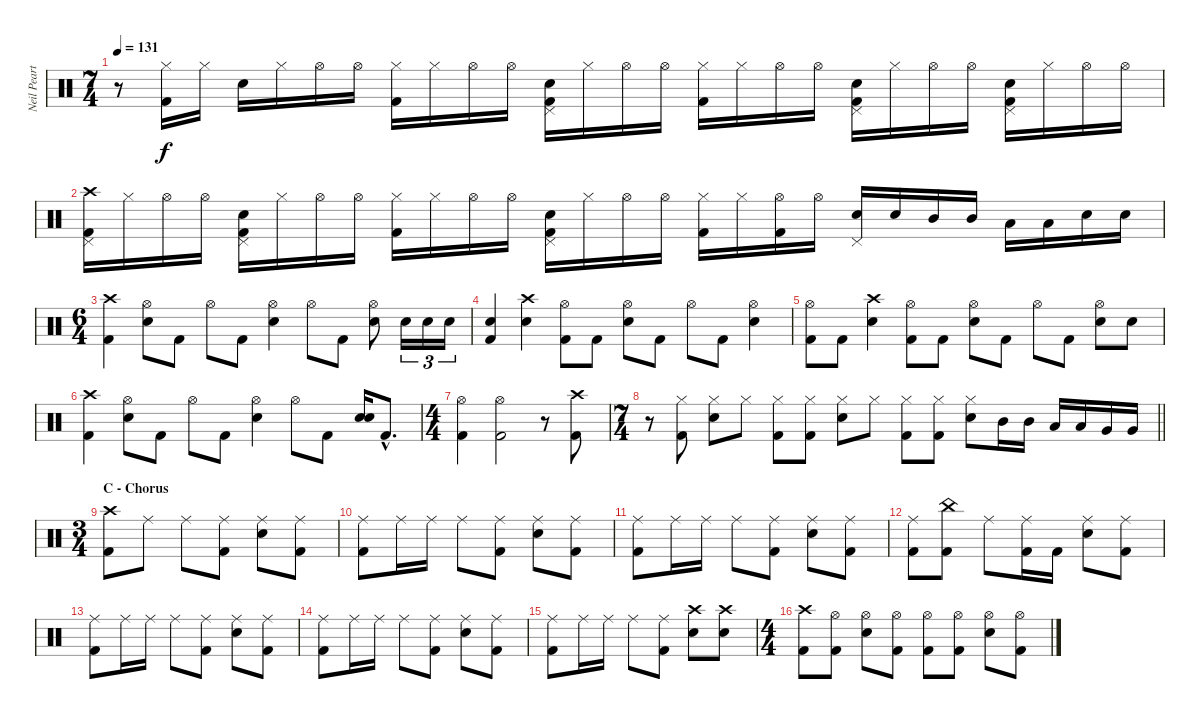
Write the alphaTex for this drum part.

\track ("Neil Peart" "Neil Peart") {instrument percussion}
\staff {score}
\articulation defaults
\ts (7 4)
\tempo 131
\clef neutral
\ks c
r.8{dy f} ("Hi-Hat (closed)" "Kick (hit) 2").16 "Hi-Hat (closed)".16 "Electric Snare (hit)".16 "Hi-Hat (closed)".16 "Hi-Hat (open)".16 "Hi-Hat (open)".16 ("Hi-Hat (closed)" "Kick (hit) 2").16 "Hi-Hat (closed)".16 "Hi-Hat (open)".16 "Hi-Hat (open)".16 ("Pedal Hi-Hat (hit)" "Electric Snare (hit)" "Kick (hit) 2").16 "Hi-Hat (closed)".16 "Hi-Hat (open)".16 "Hi-Hat (open)".16 ("Hi-Hat (closed)" "Kick (hit) 2").16 "Hi-Hat (closed)".16 "Hi-Hat (open)".16 "Hi-Hat (open)".16 ("Pedal Hi-Hat (hit)" "Electric Snare (hit)" "Kick (hit) 2").16 "Hi-Hat (closed)".16 "Hi-Hat (open)".16 "Hi-Hat (open)".16 ("Pedal Hi-Hat (hit)" "Electric Snare (hit)" "Kick (hit) 2").16 "Hi-Hat (closed)".16 "Hi-Hat (open)".16 "Hi-Hat (open)".16 |
("Crash high (hit)" "Pedal Hi-Hat (hit)" "Kick (hit) 2").16 "Hi-Hat (closed)".16 "Hi-Hat (open)".16 "Hi-Hat (open)".16 ("Pedal Hi-Hat (hit)" "Electric Snare (hit)" "Kick (hit) 2").16 "Hi-Hat (closed)".16 "Hi-Hat (open)".16 "Hi-Hat (open)".16 ("Hi-Hat (closed)" "Kick (hit) 2").16 "Hi-Hat (closed)".16 "Hi-Hat (open)".16 "Hi-Hat (open)".16 ("Pedal Hi-Hat (hit)" "Electric Snare (hit)" "Kick (hit) 2").16 "Hi-Hat (closed)".16 "Hi-Hat (open)".16 "Hi-Hat (open)".16 ("Hi-Hat (closed)" "Kick (hit) 2").16 "Hi-Hat (closed)".16 ("Hi-Hat (open)" "Kick (hit) 2").16 "Hi-Hat (open)".16 ("Pedal Hi-Hat (hit)" "Electric Snare (hit)").16 "Electric Snare (hit)".16 "Mid Tom (hit)".16 "Mid Tom (hit)".16 "Low Tom (hit)".16 "Low Tom (hit)".16 "Electric Snare (hit)".16 "Electric Snare (hit)".16 |
\ts (6 4)
("Crash high (hit)" "Kick (hit) 2").4 ("Hi-Hat (open)" "Electric Snare (hit)").8 "Kick (hit) 2".8 "Hi-Hat (open)".8 "Kick (hit) 2".8 ("Hi-Hat (open)" "Electric Snare (hit)").4 "Hi-Hat (open)".8 "Kick (hit) 2".8 ("Hi-Hat (open)" "Electric Snare (hit)").8 "Electric Snare (hit)".16{tu (3 2)} "Electric Snare (hit)".16{tu (3 2)} "Electric Snare (hit)".16{tu (3 2)} |
("Electric Snare (hit)" "Kick (hit) 2").4 ("Crash high (hit)" "Electric Snare (hit)").4 ("Hi-Hat (open)" "Kick (hit) 2").8 "Kick (hit) 2".8 ("Hi-Hat (open)" "Electric Snare (hit)").8 "Kick (hit) 2".8 "Hi-Hat (open)".8 "Kick (hit) 2".8 ("Hi-Hat (open)" "Electric Snare (hit)").4 |
("Hi-Hat (open)" "Kick (hit) 2").8 "Kick (hit) 2".8 ("Crash high (hit)" "Electric Snare (hit)").4 ("Hi-Hat (open)" "Kick (hit) 2").8 "Kick (hit) 2".8 ("Hi-Hat (open)" "Electric Snare (hit)").8 "Kick (hit) 2".8 "Hi-Hat (open)".8 "Kick (hit) 2".8 ("Hi-Hat (open)" "Electric Snare (hit)").8 "Electric Snare (hit)".8 |
("Crash high (hit)" "Kick (hit) 2").4 ("Hi-Hat (open)" "Electric Snare (hit)").8 "Kick (hit) 2".8 "Hi-Hat (open)".8 "Kick (hit) 2".8 ("Hi-Hat (open)" "Electric Snare (hit)").4 "Hi-Hat (open)".8 "Kick (hit) 2".8 ("Electric Snare (hit)" "Electric Snare (hit)").16{bd 240} "Kick (hit) 2"{hac}.8{d} |
\ts (4 4)
("Hi-Hat (open)" "Kick (hit) 2").4 ("Hi-Hat (open)" "Kick (hit) 2").2 r.8 ("Crash high (hit)" "Kick (hit) 2").8 |
\ts (7 4)
\barLineRight lightlight
r.8 ("Hi-Hat (closed)" "Kick (hit) 2").8 ("Hi-Hat (closed)" "Electric Snare (hit)").8 "Hi-Hat (closed)".8 ("Hi-Hat (closed)" "Kick (hit) 2").8 ("Hi-Hat (closed)" "Kick (hit) 2").8 ("Hi-Hat (closed)" "Electric Snare (hit)").8 "Hi-Hat (closed)".8 ("Hi-Hat (closed)" "Kick (hit) 2").8 ("Hi-Hat (closed)" "Kick (hit) 2").8 ("Hi-Hat (closed)" "Electric Snare (hit)").8 "Mid Tom (hit)".16 "Mid Tom (hit)".16 "Low Tom (hit)".16 "Low Tom (hit)".16 "Very Low Tom (hit)".16 "Very Low Tom (hit)".16 |
\ts (3 4)
\section ("" "C - Chorus")
("Crash high (hit)" "Kick (hit) 2").8 "Ride (middle)".8 "Ride (middle)".8 ("Ride (middle)" "Kick (hit) 2").8 ("Ride (middle)" "Electric Snare (hit)").8 ("Ride (middle)" "Kick (hit) 2").8 |
("Ride (middle)" "Kick (hit) 2").8 "Ride (middle)".16 "Ride (middle)".16 "Ride (middle)".8 ("Ride (middle)" "Kick (hit) 2").8 ("Ride (middle)" "Electric Snare (hit)").8 ("Ride (middle)" "Kick (hit) 2").8 |
("Ride (middle)" "Kick (hit) 2").8 "Ride (middle)".16 "Ride (middle)".16 "Ride (middle)".8 ("Ride (middle)" "Kick (hit) 2").8 ("Ride (middle)" "Electric Snare (hit)").8 ("Ride (middle)" "Kick (hit) 2").8 |
("Ride (middle)" "Kick (hit) 2").8 ("China (hit)" "Kick (hit) 2").8 "Ride (middle)".8 ("Ride (middle)" "Kick (hit) 2").16 "Kick (hit) 2".16 ("Ride (middle)" "Electric Snare (hit)").8 ("Ride (middle)" "Kick (hit) 2").8 |
("Ride (middle)" "Kick (hit) 2").8 "Ride (middle)".16 "Ride (middle)".16 "Ride (middle)".8 ("Ride (middle)" "Kick (hit) 2").8 ("Ride (middle)" "Electric Snare (hit)").8 ("Ride (middle)" "Kick (hit) 2").8 |
("Ride (middle)" "Kick (hit) 2").8 "Ride (middle)".16 "Ride (middle)".16 "Ride (middle)".8 ("Ride (middle)" "Kick (hit) 2").8 ("Ride (middle)" "Electric Snare (hit)").8 ("Ride (middle)" "Kick (hit) 2").8 |
("Ride (middle)" "Kick (hit) 2").8 "Ride (middle)".16 "Ride (middle)".16 "Ride (middle)".8 ("Ride (middle)" "Kick (hit) 2").8 ("Crash high (hit)" "Electric Snare (hit)").8 ("Crash high (hit)" "Electric Snare (hit)").8 |
\ts (4 4)
("Crash high (hit)" "Kick (hit) 2").8 ("Hi-Hat (open)" "Kick (hit) 2").8 ("Hi-Hat (open)" "Electric Snare (hit)").8 ("Hi-Hat (open)" "Kick (hit) 2").8 ("Hi-Hat (open)" "Kick (hit) 2").8 ("Hi-Hat (open)" "Kick (hit) 2").8 ("Hi-Hat (open)" "Electric Snare (hit)").8 ("Hi-Hat (open)" "Kick (hit) 2").8
